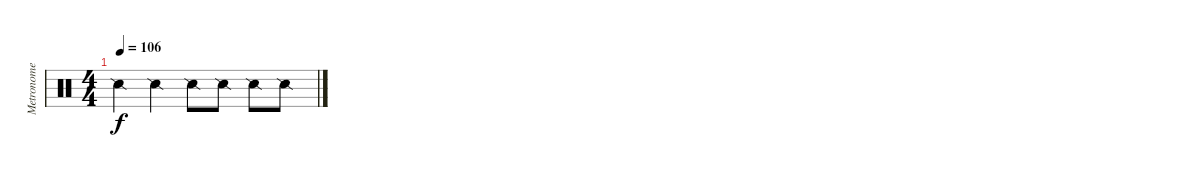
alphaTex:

\track ("Metronome" "Metronome") {instrument percussion}
\staff {score}
\articulation defaults
\ts (4 4)
\tempo 106
\clef neutral
\ks c "Snare (side stick) 2".4{dy f} "Snare (side stick) 2".4 "Snare (side stick) 2".8 "Snare (side stick) 2".8 "Snare (side stick) 2".8 "Snare (side stick) 2".8
